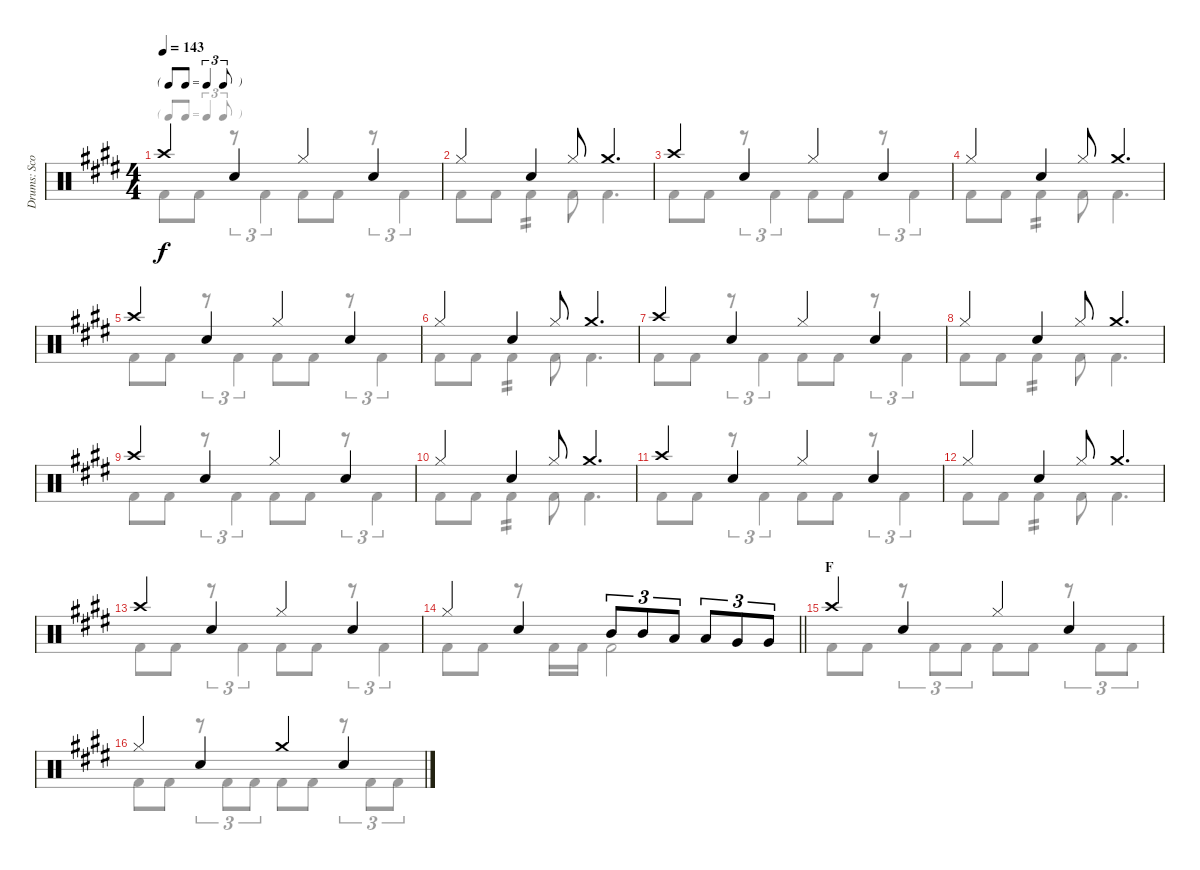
\track ("Drums: Scott" "Drums: Sco") {instrument percussion}
\staff {score}
\articulation defaults
\voice
\ts (4 4)
\tf triplet8th
\tempo 143
\clef neutral
\ks e "Crash high (hit)".4{dy f} "Snare (hit) 2".4 "Hi-Hat (closed)".4 "Snare (hit) 2".4
|
"Hi-Hat (closed)".4 "Snare (hit) 2".4 "Hi-Hat (closed)".8 "Crash medium (hit)".4{d} |
"Crash high (hit)".4 "Snare (hit) 2".4 "Hi-Hat (closed)".4 "Snare (hit) 2".4 |
"Hi-Hat (closed)".4 "Snare (hit) 2".4 "Hi-Hat (closed)".8 "Crash medium (hit)".4{d} |
"Crash high (hit)".4 "Snare (hit) 2".4 "Hi-Hat (closed)".4 "Snare (hit) 2".4 |
"Hi-Hat (closed)".4 "Snare (hit) 2".4 "Hi-Hat (closed)".8 "Crash medium (hit)".4{d} |
"Crash high (hit)".4 "Snare (hit) 2".4 "Hi-Hat (closed)".4 "Snare (hit) 2".4 |
"Hi-Hat (closed)".4 "Snare (hit) 2".4 "Hi-Hat (closed)".8 "Crash medium (hit)".4{d} |
"Crash high (hit)".4 "Snare (hit) 2".4 "Hi-Hat (closed)".4 "Snare (hit) 2".4 |
"Hi-Hat (closed)".4 "Snare (hit) 2".4 "Hi-Hat (closed)".8 "Crash medium (hit)".4{d} |
"Crash high (hit)".4 "Snare (hit) 2".4 "Hi-Hat (closed)".4 "Snare (hit) 2".4 |
"Hi-Hat (closed)".4 "Snare (hit) 2".4 "Hi-Hat (closed)".8 "Crash medium (hit)".4{d} |
"Crash high (hit)".4 "Snare (hit) 2".4 "Hi-Hat (closed)".4 "Snare (hit) 2".4 |
\barLineRight lightlight "Hi-Hat (closed)".4 "Snare (hit) 2".4 "Mid Tom (hit)".8{tu (3 2)} "Mid Tom (hit)".8{tu (3 2)} "Low Tom (hit)".8{tu (3 2)} "Low Tom (hit)".8{tu (3 2)} "Very Low Tom (hit)".8{tu (3 2)} "Very Low Tom (hit)".8{tu (3 2)}
|
\section ("" "F")
"Crash high (hit)".4 "Snare (hit) 2".4 "Hi-Hat (closed)".4 "Snare (hit) 2".4 |
"Hi-Hat (closed)".4 "Snare (hit) 2".4 "Crash medium (hit)".4 "Snare (hit) 2".4
\voice
\clef neutral
\ottava regular
\simile none
\ks e "Kick (hit) 2".8{dy f} "Kick (hit) 2".8
r.8{tu (3 2)} "Kick (hit) 2".4{tu (3 2)} "Kick (hit) 2".8 "Kick (hit) 2".8 r.8{tu (3 2)} "Kick (hit) 2".4{tu (3 2)} |
"Kick (hit) 2".8 "Kick (hit) 2".8 "Kick (hit) 2".4{tp 2} "Kick (hit) 2".8 "Kick (hit) 2".4{d} |
"Kick (hit) 2".8 "Kick (hit) 2".8 r.8{tu (3 2)} "Kick (hit) 2".4{tu (3 2)} "Kick (hit) 2".8 "Kick (hit) 2".8 r.8{tu (3 2)} "Kick (hit) 2".4{tu (3 2)} |
"Kick (hit) 2".8 "Kick (hit) 2".8 "Kick (hit) 2".4{tp 2} "Kick (hit) 2".8 "Kick (hit) 2".4{d} |
"Kick (hit) 2".8 "Kick (hit) 2".8 r.8{tu (3 2)} "Kick (hit) 2".4{tu (3 2)} "Kick (hit) 2".8 "Kick (hit) 2".8 r.8{tu (3 2)} "Kick (hit) 2".4{tu (3 2)} |
"Kick (hit) 2".8 "Kick (hit) 2".8 "Kick (hit) 2".4{tp 2} "Kick (hit) 2".8 "Kick (hit) 2".4{d} |
"Kick (hit) 2".8 "Kick (hit) 2".8 r.8{tu (3 2)} "Kick (hit) 2".4{tu (3 2)} "Kick (hit) 2".8 "Kick (hit) 2".8 r.8{tu (3 2)} "Kick (hit) 2".4{tu (3 2)} |
"Kick (hit) 2".8 "Kick (hit) 2".8 "Kick (hit) 2".4{tp 2} "Kick (hit) 2".8 "Kick (hit) 2".4{d} |
"Kick (hit) 2".8 "Kick (hit) 2".8 r.8{tu (3 2)} "Kick (hit) 2".4{tu (3 2)} "Kick (hit) 2".8 "Kick (hit) 2".8 r.8{tu (3 2)} "Kick (hit) 2".4{tu (3 2)} |
"Kick (hit) 2".8 "Kick (hit) 2".8 "Kick (hit) 2".4{tp 2} "Kick (hit) 2".8 "Kick (hit) 2".4{d} |
"Kick (hit) 2".8 "Kick (hit) 2".8 r.8{tu (3 2)} "Kick (hit) 2".4{tu (3 2)} "Kick (hit) 2".8 "Kick (hit) 2".8 r.8{tu (3 2)} "Kick (hit) 2".4{tu (3 2)} |
"Kick (hit) 2".8 "Kick (hit) 2".8 "Kick (hit) 2".4{tp 2} "Kick (hit) 2".8 "Kick (hit) 2".4{d} |
"Kick (hit) 2".8 "Kick (hit) 2".8 r.8{tu (3 2)} "Kick (hit) 2".4{tu (3 2)} "Kick (hit) 2".8 "Kick (hit) 2".8 r.8{tu (3 2)} "Kick (hit) 2".4{tu (3 2)} |
\barLineRight lightlight "Kick (hit) 2".8 "Kick (hit) 2".8
r.8 "Kick (hit) 2".16 "Kick (hit) 2".16 "Kick (hit) 2".2 |
"Kick (hit) 2".8 "Kick (hit) 2".8 r.8{tu (3 2)} "Kick (hit) 2".8{tu (3 2)} "Kick (hit) 2".8{tu (3 2)} "Kick (hit) 2".8 "Kick (hit) 2".8 r.8{tu (3 2)} "Kick (hit) 2".8{tu (3 2)} "Kick (hit) 2".8{tu (3 2)} |
"Kick (hit) 2".8 "Kick (hit) 2".8 r.8{tu (3 2)} "Kick (hit) 2".8{tu (3 2)} "Kick (hit) 2".8{tu (3 2)} "Kick (hit) 2".8 "Kick (hit) 2".8 r.8{tu (3 2)} "Kick (hit) 2".8{tu (3 2)} "Kick (hit) 2".8{tu (3 2)}
